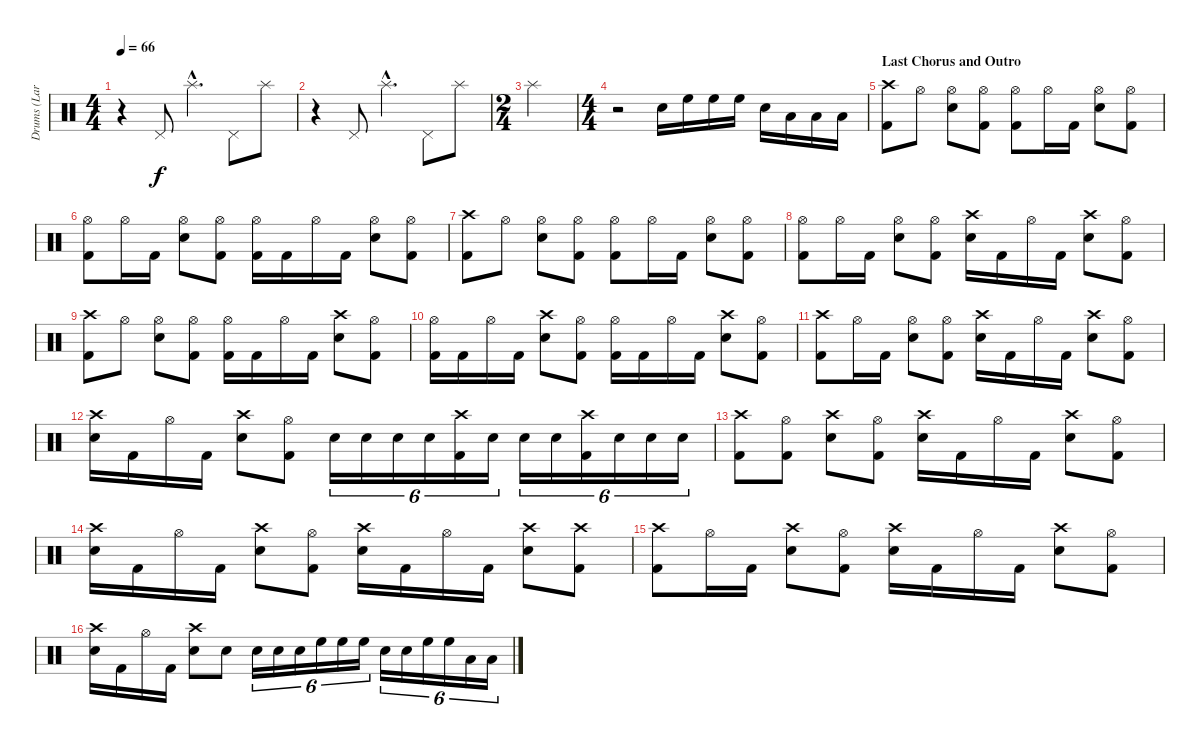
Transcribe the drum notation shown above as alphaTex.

\track ("Drums (Lars)" "Drums (Lar") {instrument percussion}
\staff {score}
\articulation defaults
\ts (4 4)
\tempo 66
\clef neutral
\ks c
r.4{dy f} "Pedal Hi-Hat (hit)".8 "Splash (hit)"{hac}.4{d} "Pedal Hi-Hat (hit)".8 "Splash (hit)".8 |
r.4 "Pedal Hi-Hat (hit)".8 "Splash (hit)"{hac}.4{d} "Pedal Hi-Hat (hit)".8 "Splash (hit)".8 |
\ts (2 4)
"Splash (hit)".2 |
\ts (4 4)
r.2 "Snare (hit) 2".16 "High Floor Tom (hit)".16 "High Floor Tom (hit)".16 "High Floor Tom (hit)".16 "Snare (hit) 2".16 "Low Tom (hit)".16 "Low Tom (hit)".16 "Low Tom (hit)".16 |
\section ("" "Last Chorus and Outro")
("Crash high (hit)" "Kick (hit) 2").8 "Hi-Hat (open)".8 ("Hi-Hat (open)" "Snare (hit) 2").8 ("Hi-Hat (open)" "Kick (hit) 2").8 ("Hi-Hat (open)" "Kick (hit) 2").8 "Hi-Hat (open)".16 "Kick (hit) 2".16 ("Hi-Hat (open)" "Snare (hit) 2").8 ("Hi-Hat (open)" "Kick (hit) 2").8 |
("Hi-Hat (open)" "Kick (hit) 2").8 "Hi-Hat (open)".16 "Kick (hit) 2".16 ("Hi-Hat (open)" "Snare (hit) 2").8 ("Hi-Hat (open)" "Kick (hit) 2").8 ("Hi-Hat (open)" "Kick (hit) 2").16 "Kick (hit) 2".16 "Hi-Hat (open)".16 "Kick (hit) 2".16 ("Hi-Hat (open)" "Snare (hit) 2").8 ("Hi-Hat (open)" "Kick (hit) 2").8 |
("Crash high (hit)" "Kick (hit) 2").8 "Hi-Hat (open)".8 ("Hi-Hat (open)" "Snare (hit) 2").8 ("Hi-Hat (open)" "Kick (hit) 2").8 ("Hi-Hat (open)" "Kick (hit) 2").8 "Hi-Hat (open)".16 "Kick (hit) 2".16 ("Hi-Hat (open)" "Snare (hit) 2").8 ("Hi-Hat (open)" "Kick (hit) 2").8 |
("Hi-Hat (open)" "Kick (hit) 2").8 "Hi-Hat (open)".16 "Kick (hit) 2".16 ("Hi-Hat (open)" "Snare (hit) 2").8 ("Hi-Hat (open)" "Kick (hit) 2").8 ("Crash high (hit)" "Snare (hit) 2").16 "Kick (hit) 2".16 "Hi-Hat (open)".16 "Kick (hit) 2".16 ("Crash high (hit)" "Snare (hit) 2").8 ("Hi-Hat (open)" "Kick (hit) 2").8 |
("Crash high (hit)" "Kick (hit) 2").8 "Hi-Hat (open)".8 ("Hi-Hat (open)" "Snare (hit) 2").8 ("Hi-Hat (open)" "Kick (hit) 2").8 ("Hi-Hat (open)" "Kick (hit) 2").16 "Kick (hit) 2".16 "Hi-Hat (open)".16 "Kick (hit) 2".16 ("Crash high (hit)" "Snare (hit) 2").8 ("Hi-Hat (open)" "Kick (hit) 2").8 |
("Hi-Hat (open)" "Kick (hit) 2").16 "Kick (hit) 2".16 "Hi-Hat (open)".16 "Kick (hit) 2".16 ("Crash high (hit)" "Snare (hit) 2").8 ("Hi-Hat (open)" "Kick (hit) 2").8 ("Hi-Hat (open)" "Kick (hit) 2").16 "Kick (hit) 2".16 "Hi-Hat (open)".16 "Kick (hit) 2".16 ("Crash high (hit)" "Snare (hit) 2").8 ("Hi-Hat (open)" "Kick (hit) 2").8 |
("Crash high (hit)" "Kick (hit) 2").8 "Hi-Hat (open)".16 "Kick (hit) 2".16 ("Hi-Hat (open)" "Snare (hit) 2").8 ("Hi-Hat (open)" "Kick (hit) 2").8 ("Crash high (hit)" "Snare (hit) 2").16 "Kick (hit) 2".16 "Hi-Hat (open)".16 "Kick (hit) 2".16 ("Crash high (hit)" "Snare (hit) 2").8 ("Hi-Hat (open)" "Kick (hit) 2").8 |
("Crash high (hit)" "Snare (hit) 2").16 "Kick (hit) 2".16 "Hi-Hat (open)".16 "Kick (hit) 2".16 ("Crash high (hit)" "Snare (hit) 2").8 ("Hi-Hat (open)" "Kick (hit) 2").8 "Snare (hit) 2".16{tu (6 4)} "Snare (hit) 2".16{tu (6 4)} "Snare (hit) 2".16{tu (6 4)} "Snare (hit) 2".16{tu (6 4)} ("Crash high (hit)" "Kick (hit) 2").16{tu (6 4)} "Snare (hit) 2".16{tu (6 4)} "Snare (hit) 2".16{tu (6 4)} "Snare (hit) 2".16{tu (6 4)} ("Crash high (hit)" "Kick (hit) 2").16{tu (6 4)} "Snare (hit) 2".16{tu (6 4)} "Snare (hit) 2".16{tu (6 4)} "Snare (hit) 2".16{tu (6 4)} |
("Crash high (hit)" "Kick (hit) 2").8 ("Hi-Hat (open)" "Kick (hit) 2").8 ("Crash high (hit)" "Snare (hit) 2").8 ("Hi-Hat (open)" "Kick (hit) 2").8 ("Crash high (hit)" "Snare (hit) 2").16 "Kick (hit) 2".16 "Hi-Hat (open)".16 "Kick (hit) 2".16 ("Crash high (hit)" "Snare (hit) 2").8 ("Hi-Hat (open)" "Kick (hit) 2").8 |
("Crash high (hit)" "Snare (hit) 2").16 "Kick (hit) 2".16 "Hi-Hat (open)".16 "Kick (hit) 2".16 ("Crash high (hit)" "Snare (hit) 2").8 ("Hi-Hat (open)" "Kick (hit) 2").8 ("Crash high (hit)" "Snare (hit) 2").16 "Kick (hit) 2".16 "Hi-Hat (open)".16 "Kick (hit) 2".16 ("Crash high (hit)" "Snare (hit) 2").8 ("Crash high (hit)" "Kick (hit) 2").8 |
("Crash high (hit)" "Kick (hit) 2").8 "Hi-Hat (open)".16 "Kick (hit) 2".16 ("Crash high (hit)" "Snare (hit) 2").8 ("Hi-Hat (open)" "Kick (hit) 2").8 ("Crash high (hit)" "Snare (hit) 2").16 "Kick (hit) 2".16 "Hi-Hat (open)".16 "Kick (hit) 2".16 ("Crash high (hit)" "Snare (hit) 2").8 ("Hi-Hat (open)" "Kick (hit) 2").8 |
("Crash high (hit)" "Snare (hit) 2").16 "Kick (hit) 2".16 "Hi-Hat (open)".16 "Kick (hit) 2".16 ("Crash high (hit)" "Snare (hit) 2").8 "Snare (hit) 2".8 "Snare (hit) 2".16{tu (6 4)} "Snare (hit) 2".16{tu (6 4)} "Snare (hit) 2".16{tu (6 4)} "High Floor Tom (hit)".16{tu (6 4)} "High Floor Tom (hit)".16{tu (6 4)} "High Floor Tom (hit)".16{tu (6 4)} "Snare (hit) 2".16{tu (6 4)} "Snare (hit) 2".16{tu (6 4)} "High Floor Tom (hit)".16{tu (6 4)} "High Floor Tom (hit)".16{tu (6 4)} "Low Tom (hit)".16{tu (6 4)} "Low Tom (hit)".16{tu (6 4)}
